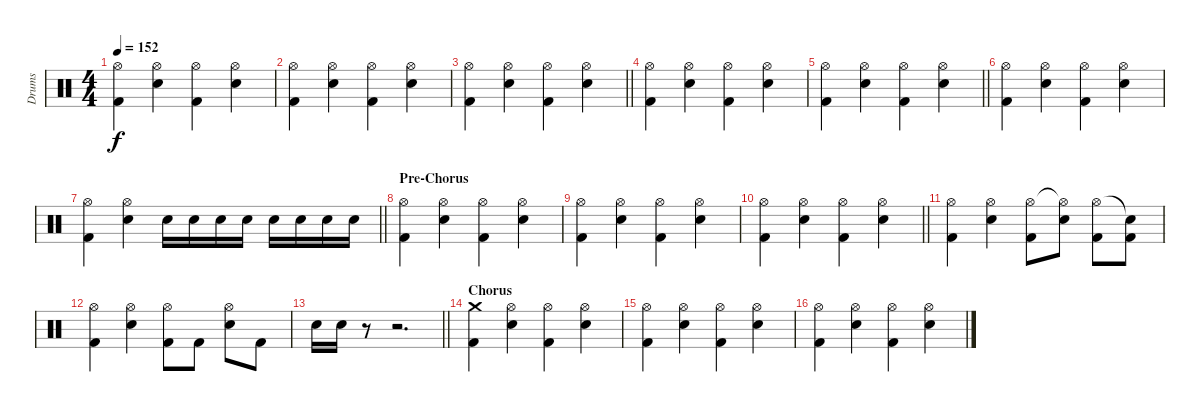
\track ("Drums" "Drums") {instrument percussion}
\staff {score}
\articulation defaults
\ts (4 4)
\tempo 152
\clef neutral
\ks c
("Hi-Hat (open)" "Kick (hit) 2").4{dy f} ("Hi-Hat (open)" "Electric Snare (hit)").4 ("Hi-Hat (open)" "Kick (hit) 2").4 ("Hi-Hat (open)" "Electric Snare (hit)").4 |
("Hi-Hat (open)" "Kick (hit) 2").4 ("Hi-Hat (open)" "Electric Snare (hit)").4 ("Hi-Hat (open)" "Kick (hit) 2").4 ("Hi-Hat (open)" "Electric Snare (hit)").4 |
\barLineRight lightlight
("Hi-Hat (open)" "Kick (hit) 2").4 ("Hi-Hat (open)" "Electric Snare (hit)").4 ("Hi-Hat (open)" "Kick (hit) 2").4 ("Hi-Hat (open)" "Electric Snare (hit)").4 |
("Hi-Hat (open)" "Kick (hit) 2").4 ("Hi-Hat (open)" "Electric Snare (hit)").4 ("Hi-Hat (open)" "Kick (hit) 2").4 ("Hi-Hat (open)" "Electric Snare (hit)").4 |
\barLineRight lightlight
("Hi-Hat (open)" "Kick (hit) 2").4 ("Hi-Hat (open)" "Electric Snare (hit)").4 ("Hi-Hat (open)" "Kick (hit) 2").4 ("Hi-Hat (open)" "Electric Snare (hit)").4 |
("Hi-Hat (open)" "Kick (hit) 2").4 ("Hi-Hat (open)" "Electric Snare (hit)").4 ("Hi-Hat (open)" "Kick (hit) 2").4 ("Hi-Hat (open)" "Electric Snare (hit)").4 |
\barLineRight lightlight
("Hi-Hat (open)" "Kick (hit) 2").4 ("Hi-Hat (open)" "Electric Snare (hit)").4 "Electric Snare (hit)".16 "Electric Snare (hit)".16 "Electric Snare (hit)".16 "Electric Snare (hit)".16 "Electric Snare (hit)".16 "Electric Snare (hit)".16 "Electric Snare (hit)".16 "Electric Snare (hit)".16 |
\section ("" "Pre-Chorus")
("Hi-Hat (open)" "Kick (hit) 2").4 ("Hi-Hat (open)" "Electric Snare (hit)").4 ("Hi-Hat (open)" "Kick (hit) 2").4 ("Hi-Hat (open)" "Electric Snare (hit)").4 |
("Hi-Hat (open)" "Kick (hit) 2").4 ("Hi-Hat (open)" "Electric Snare (hit)").4 ("Hi-Hat (open)" "Kick (hit) 2").4 ("Hi-Hat (open)" "Electric Snare (hit)").4 |
\barLineRight lightlight
("Hi-Hat (open)" "Kick (hit) 2").4 ("Hi-Hat (open)" "Electric Snare (hit)").4 ("Hi-Hat (open)" "Kick (hit) 2").4 ("Hi-Hat (open)" "Electric Snare (hit)").4 |
("Hi-Hat (open)" "Kick (hit) 2").4 ("Hi-Hat (open)" "Electric Snare (hit)").4 ("Hi-Hat (open)" "Kick (hit) 2").8 ("Hi-Hat (open)"{t} "Electric Snare (hit)").8 ("Hi-Hat (open)" "Kick (hit) 2").8 ("Snare (hit)"{t} "Kick (hit) 2").8 |
("Hi-Hat (open)" "Kick (hit) 2").4 ("Hi-Hat (open)" "Electric Snare (hit)").4 ("Hi-Hat (open)" "Kick (hit) 2").8 "Kick (hit) 2".8 ("Hi-Hat (open)" "Electric Snare (hit)").8 "Kick (hit) 2".8 |
\barLineRight lightlight "Electric Snare (hit)".16 "Electric Snare (hit)".16
r.8 r.2{d} |
\section ("" "Chorus")
("Crash medium (hit)" "Kick (hit) 2").4 ("Hi-Hat (open)" "Electric Snare (hit)").4 ("Hi-Hat (open)" "Kick (hit) 2").4 ("Hi-Hat (open)" "Electric Snare (hit)").4 |
("Hi-Hat (open)" "Kick (hit) 2").4 ("Hi-Hat (open)" "Electric Snare (hit)").4 ("Hi-Hat (open)" "Kick (hit) 2").4 ("Hi-Hat (open)" "Electric Snare (hit)").4 |
("Hi-Hat (open)" "Kick (hit) 2").4 ("Hi-Hat (open)" "Electric Snare (hit)").4 ("Hi-Hat (open)" "Kick (hit) 2").4 ("Hi-Hat (open)" "Electric Snare (hit)").4
